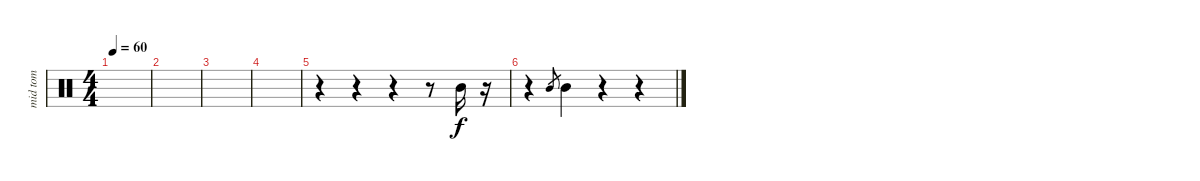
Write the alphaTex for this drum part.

\track ("mid tom" "mid tom") {instrument percussion}
\staff {score}
\articulation defaults
\ts (4 4)
\tempo 60
\clef neutral
\ks c
|
|
|
|
r.4 r.4 r.4 r.8 "Mid Tom (hit)".16 r.16 |
r.4 "Mid Tom (hit)".8{gr} "Mid Tom (hit)".4 r.4 r.4
